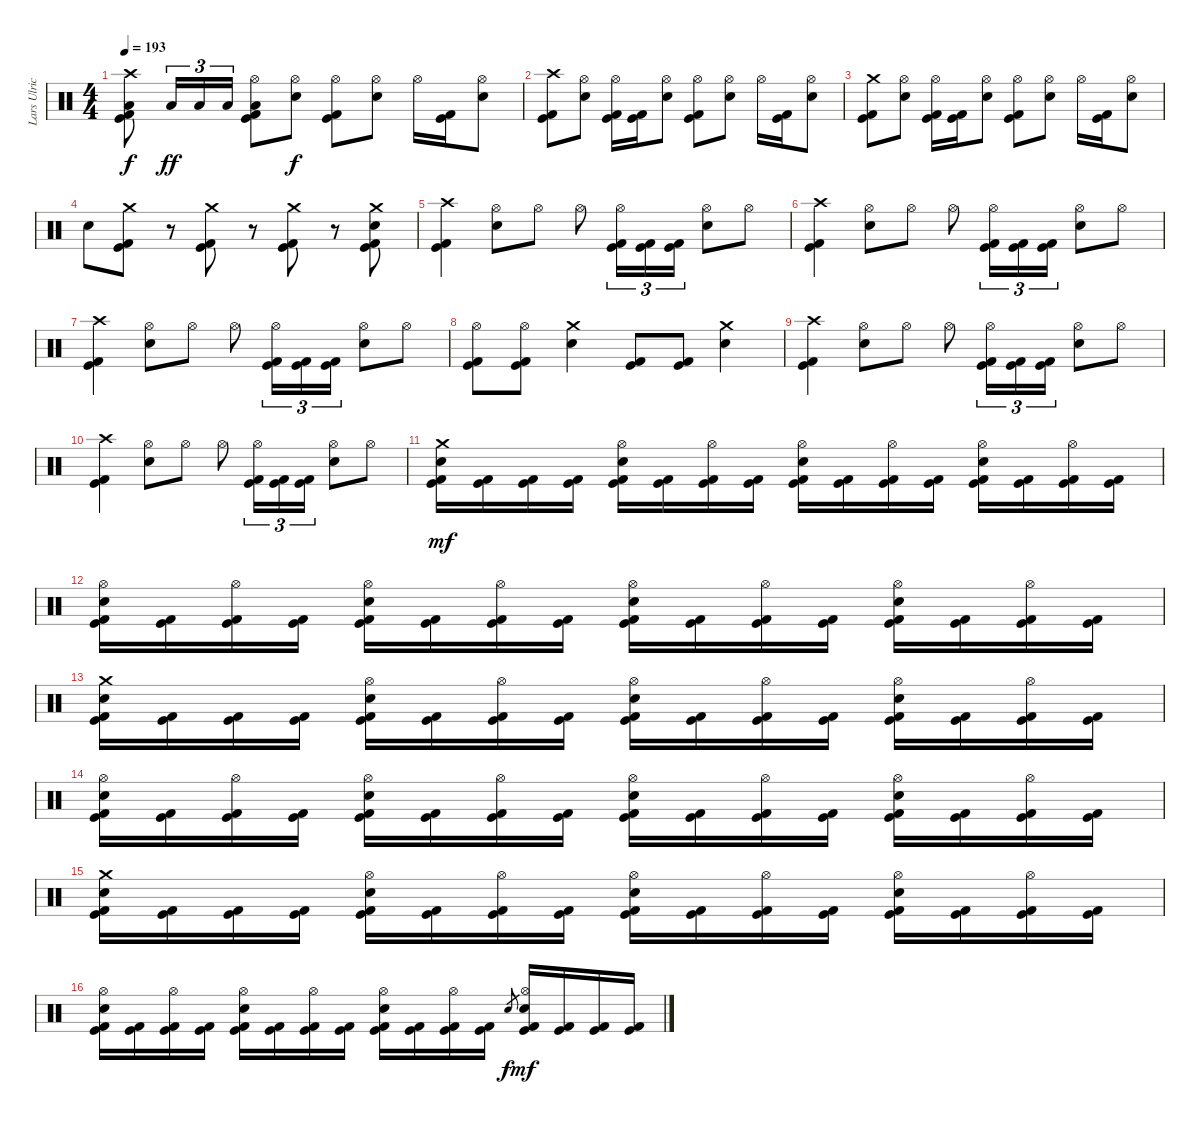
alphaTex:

\track ("Lars Ulrich" "Lars Ulric") {instrument percussion}
\staff {score}
\articulation defaults
\ts (4 4)
\tempo 193
\clef neutral
\ks c
("Crash high (hit)" "Low Tom (hit)" "Kick (hit) 2" "Kick (hit)").8{dy f} "Low Tom (hit)".16{tu (3 2) dy ff} "Low Tom (hit)".16{tu (3 2)} "Low Tom (hit)".16{tu (3 2)} ("Hi-Hat (open)" "Low Tom (hit)" "Kick (hit) 2" "Kick (hit)").8 ("Hi-Hat (open)" "Electric Snare (hit)").8{dy f} ("Hi-Hat (open)" "Kick (hit) 2" "Kick (hit)").8 ("Hi-Hat (open)" "Electric Snare (hit)").8 "Hi-Hat (open)".16 ("Kick (hit) 2" "Kick (hit)").16 ("Hi-Hat (open)" "Electric Snare (hit)").8 |
("Crash high (hit)" "Kick (hit) 2" "Kick (hit)").8 ("Hi-Hat (open)" "Electric Snare (hit)").8 ("Hi-Hat (open)" "Kick (hit) 2" "Kick (hit)").16 ("Kick (hit) 2" "Kick (hit)").16 ("Hi-Hat (open)" "Electric Snare (hit)").8 ("Hi-Hat (open)" "Kick (hit) 2" "Kick (hit)").8 ("Hi-Hat (open)" "Electric Snare (hit)").8 "Hi-Hat (open)".16 ("Kick (hit) 2" "Kick (hit)").16 ("Hi-Hat (open)" "Electric Snare (hit)").8 |
("Crash medium (hit)" "Kick (hit) 2" "Kick (hit)").8 ("Hi-Hat (open)" "Electric Snare (hit)").8 ("Hi-Hat (open)" "Kick (hit) 2" "Kick (hit)").16 ("Kick (hit) 2" "Kick (hit)").16 ("Hi-Hat (open)" "Electric Snare (hit)").8 ("Hi-Hat (open)" "Kick (hit) 2" "Kick (hit)").8 ("Hi-Hat (open)" "Electric Snare (hit)").8 "Hi-Hat (open)".16 ("Kick (hit) 2" "Kick (hit)").16 ("Hi-Hat (open)" "Electric Snare (hit)").8 |
"Electric Snare (hit)".8 ("Crash medium (hit)" "Kick (hit) 2" "Kick (hit)").8 r.8 ("Crash medium (hit)" "Kick (hit)" "Kick (hit) 2").8 r.8 ("Crash medium (hit)" "Kick (hit)" "Kick (hit) 2").8 r.8 ("Crash medium (hit)" "Electric Snare (hit)" "Kick (hit)" "Kick (hit) 2").8 |
("Crash high (hit)" "Kick (hit) 2" "Kick (hit)").4 ("Hi-Hat (open)" "Electric Snare (hit)").8 "Hi-Hat (open)".8 "Hi-Hat (open)".8 ("Hi-Hat (open)" "Kick (hit) 2" "Kick (hit)").16{tu (3 2)} ("Kick (hit) 2" "Kick (hit)").16{tu (3 2)} ("Kick (hit) 2" "Kick (hit)").16{tu (3 2)} ("Hi-Hat (open)" "Electric Snare (hit)").8 "Hi-Hat (open)".8 |
("Crash high (hit)" "Kick (hit) 2" "Kick (hit)").4 ("Hi-Hat (open)" "Electric Snare (hit)").8 "Hi-Hat (open)".8 "Hi-Hat (open)".8 ("Hi-Hat (open)" "Kick (hit) 2" "Kick (hit)").16{tu (3 2)} ("Kick (hit) 2" "Kick (hit)").16{tu (3 2)} ("Kick (hit) 2" "Kick (hit)").16{tu (3 2)} ("Hi-Hat (open)" "Electric Snare (hit)").8 "Hi-Hat (open)".8 |
("Crash high (hit)" "Kick (hit) 2" "Kick (hit)").4 ("Hi-Hat (open)" "Electric Snare (hit)").8 "Hi-Hat (open)".8 "Hi-Hat (open)".8 ("Hi-Hat (open)" "Kick (hit) 2" "Kick (hit)").16{tu (3 2)} ("Kick (hit) 2" "Kick (hit)").16{tu (3 2)} ("Kick (hit) 2" "Kick (hit)").16{tu (3 2)} ("Hi-Hat (open)" "Electric Snare (hit)").8 "Hi-Hat (open)".8 |
("Hi-Hat (open)" "Kick (hit) 2" "Kick (hit)").8 ("Hi-Hat (open)" "Kick (hit) 2" "Kick (hit)").8 ("Crash medium (hit)" "Electric Snare (hit)").4 ("Kick (hit) 2" "Kick (hit)").8 ("Kick (hit) 2" "Kick (hit)").8 ("Crash medium (hit)" "Electric Snare (hit)").4 |
("Crash high (hit)" "Kick (hit) 2" "Kick (hit)").4 ("Hi-Hat (open)" "Electric Snare (hit)").8 "Hi-Hat (open)".8 "Hi-Hat (open)".8 ("Hi-Hat (open)" "Kick (hit) 2" "Kick (hit)").16{tu (3 2)} ("Kick (hit) 2" "Kick (hit)").16{tu (3 2)} ("Kick (hit) 2" "Kick (hit)").16{tu (3 2)} ("Hi-Hat (open)" "Electric Snare (hit)").8 "Hi-Hat (open)".8 |
("Crash high (hit)" "Kick (hit) 2" "Kick (hit)").4 ("Hi-Hat (open)" "Electric Snare (hit)").8 "Hi-Hat (open)".8 "Hi-Hat (open)".8 ("Hi-Hat (open)" "Kick (hit) 2" "Kick (hit)").16{tu (3 2)} ("Kick (hit) 2" "Kick (hit)").16{tu (3 2)} ("Kick (hit) 2" "Kick (hit)").16{tu (3 2)} ("Hi-Hat (open)" "Electric Snare (hit)").8 "Hi-Hat (open)".8 |
("Crash medium (hit)" "Electric Snare (hit)" "Kick (hit) 2" "Kick (hit)").16{dy mf} ("Kick (hit) 2" "Kick (hit)").16 ("Kick (hit) 2" "Kick (hit)").16 ("Kick (hit) 2" "Kick (hit)").16 ("Hi-Hat (open)" "Electric Snare (hit)" "Kick (hit) 2" "Kick (hit)").16 ("Kick (hit) 2" "Kick (hit)").16 ("Hi-Hat (open)" "Kick (hit) 2" "Kick (hit)").16 ("Kick (hit) 2" "Kick (hit)").16 ("Hi-Hat (open)" "Electric Snare (hit)" "Kick (hit) 2" "Kick (hit)").16 ("Kick (hit) 2" "Kick (hit)").16 ("Hi-Hat (open)" "Kick (hit) 2" "Kick (hit)").16 ("Kick (hit) 2" "Kick (hit)").16 ("Hi-Hat (open)" "Electric Snare (hit)" "Kick (hit) 2" "Kick (hit)").16 ("Kick (hit) 2" "Kick (hit)").16 ("Hi-Hat (open)" "Kick (hit) 2" "Kick (hit)").16 ("Kick (hit) 2" "Kick (hit)").16 |
("Hi-Hat (open)" "Electric Snare (hit)" "Kick (hit) 2" "Kick (hit)").16 ("Kick (hit) 2" "Kick (hit)").16 ("Hi-Hat (open)" "Kick (hit) 2" "Kick (hit)").16 ("Kick (hit) 2" "Kick (hit)").16 ("Hi-Hat (open)" "Electric Snare (hit)" "Kick (hit) 2" "Kick (hit)").16 ("Kick (hit) 2" "Kick (hit)").16 ("Hi-Hat (open)" "Kick (hit) 2" "Kick (hit)").16 ("Kick (hit) 2" "Kick (hit)").16 ("Hi-Hat (open)" "Electric Snare (hit)" "Kick (hit) 2" "Kick (hit)").16 ("Kick (hit) 2" "Kick (hit)").16 ("Hi-Hat (open)" "Kick (hit) 2" "Kick (hit)").16 ("Kick (hit) 2" "Kick (hit)").16 ("Hi-Hat (open)" "Electric Snare (hit)" "Kick (hit) 2" "Kick (hit)").16 ("Kick (hit) 2" "Kick (hit)").16 ("Hi-Hat (open)" "Kick (hit) 2" "Kick (hit)").16 ("Kick (hit) 2" "Kick (hit)").16 |
("Crash medium (hit)" "Electric Snare (hit)" "Kick (hit) 2" "Kick (hit)").16 ("Kick (hit) 2" "Kick (hit)").16 ("Kick (hit) 2" "Kick (hit)").16 ("Kick (hit) 2" "Kick (hit)").16 ("Hi-Hat (open)" "Electric Snare (hit)" "Kick (hit) 2" "Kick (hit)").16 ("Kick (hit) 2" "Kick (hit)").16 ("Hi-Hat (open)" "Kick (hit) 2" "Kick (hit)").16 ("Kick (hit) 2" "Kick (hit)").16 ("Hi-Hat (open)" "Electric Snare (hit)" "Kick (hit) 2" "Kick (hit)").16 ("Kick (hit) 2" "Kick (hit)").16 ("Hi-Hat (open)" "Kick (hit) 2" "Kick (hit)").16 ("Kick (hit) 2" "Kick (hit)").16 ("Hi-Hat (open)" "Electric Snare (hit)" "Kick (hit) 2" "Kick (hit)").16 ("Kick (hit) 2" "Kick (hit)").16 ("Hi-Hat (open)" "Kick (hit) 2" "Kick (hit)").16 ("Kick (hit) 2" "Kick (hit)").16 |
("Hi-Hat (open)" "Electric Snare (hit)" "Kick (hit) 2" "Kick (hit)").16 ("Kick (hit) 2" "Kick (hit)").16 ("Hi-Hat (open)" "Kick (hit) 2" "Kick (hit)").16 ("Kick (hit) 2" "Kick (hit)").16 ("Hi-Hat (open)" "Electric Snare (hit)" "Kick (hit) 2" "Kick (hit)").16 ("Kick (hit) 2" "Kick (hit)").16 ("Hi-Hat (open)" "Kick (hit) 2" "Kick (hit)").16 ("Kick (hit) 2" "Kick (hit)").16 ("Hi-Hat (open)" "Electric Snare (hit)" "Kick (hit) 2" "Kick (hit)").16 ("Kick (hit) 2" "Kick (hit)").16 ("Hi-Hat (open)" "Kick (hit) 2" "Kick (hit)").16 ("Kick (hit) 2" "Kick (hit)").16 ("Hi-Hat (open)" "Electric Snare (hit)" "Kick (hit) 2" "Kick (hit)").16 ("Kick (hit) 2" "Kick (hit)").16 ("Hi-Hat (open)" "Kick (hit) 2" "Kick (hit)").16 ("Kick (hit) 2" "Kick (hit)").16 |
("Crash medium (hit)" "Electric Snare (hit)" "Kick (hit) 2" "Kick (hit)").16 ("Kick (hit) 2" "Kick (hit)").16 ("Kick (hit) 2" "Kick (hit)").16 ("Kick (hit) 2" "Kick (hit)").16 ("Hi-Hat (open)" "Electric Snare (hit)" "Kick (hit) 2" "Kick (hit)").16 ("Kick (hit) 2" "Kick (hit)").16 ("Hi-Hat (open)" "Kick (hit) 2" "Kick (hit)").16 ("Kick (hit) 2" "Kick (hit)").16 ("Hi-Hat (open)" "Electric Snare (hit)" "Kick (hit) 2" "Kick (hit)").16 ("Kick (hit) 2" "Kick (hit)").16 ("Hi-Hat (open)" "Kick (hit) 2" "Kick (hit)").16 ("Kick (hit) 2" "Kick (hit)").16 ("Hi-Hat (open)" "Electric Snare (hit)" "Kick (hit) 2" "Kick (hit)").16 ("Kick (hit) 2" "Kick (hit)").16 ("Hi-Hat (open)" "Kick (hit) 2" "Kick (hit)").16 ("Kick (hit) 2" "Kick (hit)").16 |
("Hi-Hat (open)" "Electric Snare (hit)" "Kick (hit) 2" "Kick (hit)").16 ("Kick (hit) 2" "Kick (hit)").16 ("Hi-Hat (open)" "Kick (hit) 2" "Kick (hit)").16 ("Kick (hit) 2" "Kick (hit)").16 ("Hi-Hat (open)" "Electric Snare (hit)" "Kick (hit) 2" "Kick (hit)").16 ("Kick (hit) 2" "Kick (hit)").16 ("Hi-Hat (open)" "Kick (hit) 2" "Kick (hit)").16 ("Kick (hit) 2" "Kick (hit)").16 ("Hi-Hat (open)" "Electric Snare (hit)" "Kick (hit) 2" "Kick (hit)").16 ("Kick (hit) 2" "Kick (hit)").16 ("Hi-Hat (open)" "Kick (hit) 2" "Kick (hit)").16 ("Kick (hit) 2" "Kick (hit)").16 "Electric Snare (hit)".8{gr dy f} ("Hi-Hat (open)" "Electric Snare (hit)" "Kick (hit) 2" "Kick (hit)").16{dy mf} ("Kick (hit) 2" "Kick (hit)").16 ("Kick (hit) 2" "Kick (hit)").16 ("Kick (hit) 2" "Kick (hit)").16
